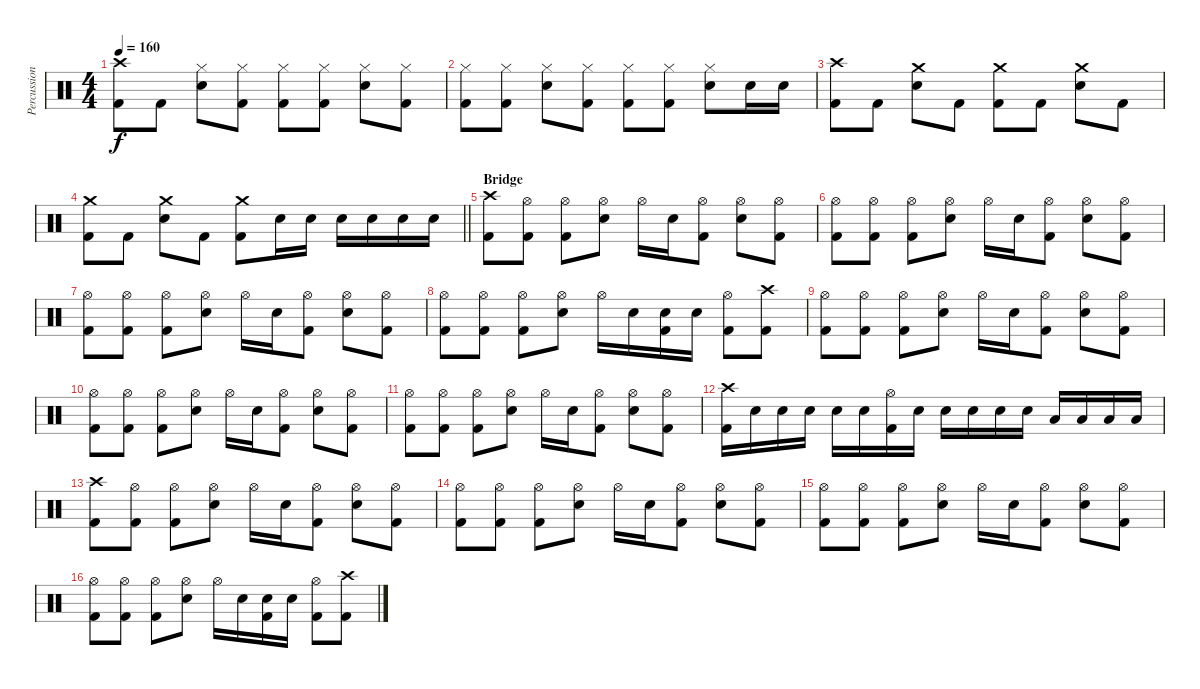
\track ("Percussion" "Percussion") {instrument percussion}
\staff {score}
\articulation defaults
\ts (4 4)
\tempo 160
\clef neutral
\ks c
("Crash high (hit)" "Kick (hit) 2").8{dy f} "Kick (hit) 2".8 ("Hi-Hat (closed)" "Electric Snare (hit)").8 ("Hi-Hat (closed)" "Kick (hit) 2").8 ("Hi-Hat (closed)" "Kick (hit) 2").8 ("Hi-Hat (closed)" "Kick (hit) 2").8 ("Hi-Hat (closed)" "Electric Snare (hit)").8 ("Hi-Hat (closed)" "Kick (hit) 2").8 |
("Hi-Hat (closed)" "Kick (hit) 2").8 ("Hi-Hat (closed)" "Kick (hit) 2").8 ("Hi-Hat (closed)" "Electric Snare (hit)").8 ("Hi-Hat (closed)" "Kick (hit) 2").8 ("Hi-Hat (closed)" "Kick (hit) 2").8 ("Hi-Hat (closed)" "Kick (hit) 2").8 ("Hi-Hat (closed)" "Electric Snare (hit)").8 "Electric Snare (hit)".16 "Electric Snare (hit)".16 |
("Crash high (hit)" "Kick (hit) 2").8 "Kick (hit) 2".8 ("Crash medium (hit)" "Electric Snare (hit)").8 "Kick (hit) 2".8 ("Crash medium (hit)" "Kick (hit) 2").8 "Kick (hit) 2".8 ("Crash medium (hit)" "Electric Snare (hit)").8 "Kick (hit) 2".8 |
\barLineRight lightlight
("Crash medium (hit)" "Kick (hit) 2").8 "Kick (hit) 2".8 ("Crash medium (hit)" "Electric Snare (hit)").8 "Kick (hit) 2".8 ("Crash medium (hit)" "Kick (hit) 2").8 "Electric Snare (hit)".16 "Electric Snare (hit)".16 "Electric Snare (hit)".16 "Electric Snare (hit)".16 "Electric Snare (hit)".16 "Electric Snare (hit)".16 |
\section ("" "Bridge")
("Crash high (hit)" "Kick (hit) 2").8 ("Hi-Hat (open)" "Kick (hit) 2").8 ("Hi-Hat (open)" "Kick (hit) 2").8 ("Hi-Hat (open)" "Electric Snare (hit)").8 "Hi-Hat (open)".16 "Electric Snare (hit)".16 ("Hi-Hat (open)" "Kick (hit) 2").8 ("Hi-Hat (open)" "Electric Snare (hit)").8 ("Hi-Hat (open)" "Kick (hit) 2").8 |
("Hi-Hat (open)" "Kick (hit) 2").8 ("Hi-Hat (open)" "Kick (hit) 2").8 ("Hi-Hat (open)" "Kick (hit) 2").8 ("Hi-Hat (open)" "Electric Snare (hit)").8 "Hi-Hat (open)".16 "Electric Snare (hit)".16 ("Hi-Hat (open)" "Kick (hit) 2").8 ("Hi-Hat (open)" "Electric Snare (hit)").8 ("Hi-Hat (open)" "Kick (hit) 2").8 |
("Hi-Hat (open)" "Kick (hit) 2").8 ("Hi-Hat (open)" "Kick (hit) 2").8 ("Hi-Hat (open)" "Kick (hit) 2").8 ("Hi-Hat (open)" "Electric Snare (hit)").8 "Hi-Hat (open)".16 "Electric Snare (hit)".16 ("Hi-Hat (open)" "Kick (hit) 2").8 ("Hi-Hat (open)" "Electric Snare (hit)").8 ("Hi-Hat (open)" "Kick (hit) 2").8 |
("Hi-Hat (open)" "Kick (hit) 2").8 ("Hi-Hat (open)" "Kick (hit) 2").8 ("Hi-Hat (open)" "Kick (hit) 2").8 ("Hi-Hat (open)" "Electric Snare (hit)").8 "Hi-Hat (open)".16 "Electric Snare (hit)".16 ("Electric Snare (hit)" "Kick (hit) 2").16 "Electric Snare (hit)".16 ("Hi-Hat (open)" "Kick (hit) 2").8 ("Crash high (hit)" "Kick (hit) 2").8 |
("Hi-Hat (open)" "Kick (hit) 2").8 ("Hi-Hat (open)" "Kick (hit) 2").8 ("Hi-Hat (open)" "Kick (hit) 2").8 ("Hi-Hat (open)" "Electric Snare (hit)").8 "Hi-Hat (open)".16 "Electric Snare (hit)".16 ("Hi-Hat (open)" "Kick (hit) 2").8 ("Hi-Hat (open)" "Electric Snare (hit)").8 ("Hi-Hat (open)" "Kick (hit) 2").8 |
("Hi-Hat (open)" "Kick (hit) 2").8 ("Hi-Hat (open)" "Kick (hit) 2").8 ("Hi-Hat (open)" "Kick (hit) 2").8 ("Hi-Hat (open)" "Electric Snare (hit)").8 "Hi-Hat (open)".16 "Electric Snare (hit)".16 ("Hi-Hat (open)" "Kick (hit) 2").8 ("Hi-Hat (open)" "Electric Snare (hit)").8 ("Hi-Hat (open)" "Kick (hit) 2").8 |
("Hi-Hat (open)" "Kick (hit) 2").8 ("Hi-Hat (open)" "Kick (hit) 2").8 ("Hi-Hat (open)" "Kick (hit) 2").8 ("Hi-Hat (open)" "Electric Snare (hit)").8 "Hi-Hat (open)".16 "Electric Snare (hit)".16 ("Hi-Hat (open)" "Kick (hit) 2").8 ("Hi-Hat (open)" "Electric Snare (hit)").8 ("Hi-Hat (open)" "Kick (hit) 2").8 |
("Crash high (hit)" "Kick (hit) 2").16 "Electric Snare (hit)".16 "Electric Snare (hit)".16 "Electric Snare (hit)".16 "Electric Snare (hit)".16 "Electric Snare (hit)".16 ("Hi-Hat (open)" "Kick (hit) 2").16 "Electric Snare (hit)".16 "Electric Snare (hit)".16 "Electric Snare (hit)".16 "Electric Snare (hit)".16 "Electric Snare (hit)".16 "Low Tom (hit)".16 "Low Tom (hit)".16 "Low Tom (hit)".16 "Low Tom (hit)".16 |
("Crash high (hit)" "Kick (hit) 2").8 ("Hi-Hat (open)" "Kick (hit) 2").8 ("Hi-Hat (open)" "Kick (hit) 2").8 ("Hi-Hat (open)" "Electric Snare (hit)").8 "Hi-Hat (open)".16 "Electric Snare (hit)".16 ("Hi-Hat (open)" "Kick (hit) 2").8 ("Hi-Hat (open)" "Electric Snare (hit)").8 ("Hi-Hat (open)" "Kick (hit) 2").8 |
("Hi-Hat (open)" "Kick (hit) 2").8 ("Hi-Hat (open)" "Kick (hit) 2").8 ("Hi-Hat (open)" "Kick (hit) 2").8 ("Hi-Hat (open)" "Electric Snare (hit)").8 "Hi-Hat (open)".16 "Electric Snare (hit)".16 ("Hi-Hat (open)" "Kick (hit) 2").8 ("Hi-Hat (open)" "Electric Snare (hit)").8 ("Hi-Hat (open)" "Kick (hit) 2").8 |
("Hi-Hat (open)" "Kick (hit) 2").8 ("Hi-Hat (open)" "Kick (hit) 2").8 ("Hi-Hat (open)" "Kick (hit) 2").8 ("Hi-Hat (open)" "Electric Snare (hit)").8 "Hi-Hat (open)".16 "Electric Snare (hit)".16 ("Hi-Hat (open)" "Kick (hit) 2").8 ("Hi-Hat (open)" "Electric Snare (hit)").8 ("Hi-Hat (open)" "Kick (hit) 2").8 |
("Hi-Hat (open)" "Kick (hit) 2").8 ("Hi-Hat (open)" "Kick (hit) 2").8 ("Hi-Hat (open)" "Kick (hit) 2").8 ("Hi-Hat (open)" "Electric Snare (hit)").8 "Hi-Hat (open)".16 "Electric Snare (hit)".16 ("Electric Snare (hit)" "Kick (hit) 2").16 "Electric Snare (hit)".16 ("Hi-Hat (open)" "Kick (hit) 2").8 ("Crash high (hit)" "Kick (hit) 2").8
